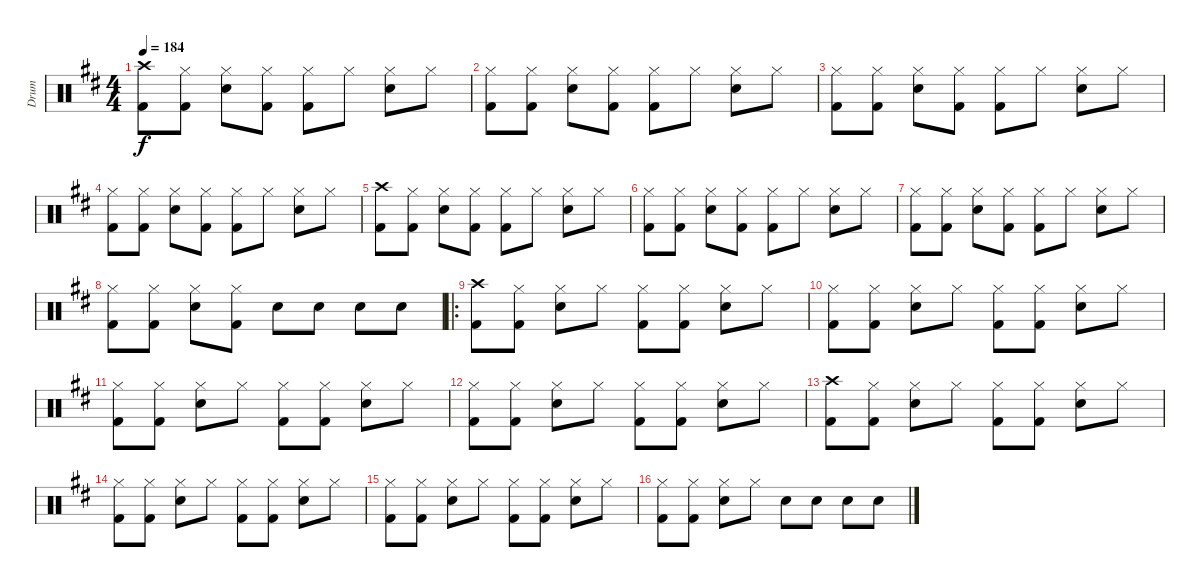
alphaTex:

\track ("Drum" "Drum") {instrument percussion}
\staff {score}
\articulation defaults
\ts (4 4)
\tempo 184
\clef neutral
\ks d
("Crash high (hit)" "Kick (hit) 2").8{dy f} ("Hi-Hat (closed)" "Kick (hit) 2").8 ("Hi-Hat (closed)" "Electric Snare (hit)").8 ("Hi-Hat (closed)" "Kick (hit) 2").8 ("Hi-Hat (closed)" "Kick (hit) 2").8 "Hi-Hat (closed)".8 ("Hi-Hat (closed)" "Electric Snare (hit)").8 "Hi-Hat (closed)".8 |
("Hi-Hat (closed)" "Kick (hit) 2").8 ("Hi-Hat (closed)" "Kick (hit) 2").8 ("Hi-Hat (closed)" "Electric Snare (hit)").8 ("Hi-Hat (closed)" "Kick (hit) 2").8 ("Hi-Hat (closed)" "Kick (hit) 2").8 "Hi-Hat (closed)".8 ("Hi-Hat (closed)" "Electric Snare (hit)").8 "Hi-Hat (closed)".8 |
("Hi-Hat (closed)" "Kick (hit) 2").8 ("Hi-Hat (closed)" "Kick (hit) 2").8 ("Hi-Hat (closed)" "Electric Snare (hit)").8 ("Hi-Hat (closed)" "Kick (hit) 2").8 ("Hi-Hat (closed)" "Kick (hit) 2").8 "Hi-Hat (closed)".8 ("Hi-Hat (closed)" "Electric Snare (hit)").8 "Hi-Hat (closed)".8 |
("Hi-Hat (closed)" "Kick (hit) 2").8 ("Hi-Hat (closed)" "Kick (hit) 2").8 ("Hi-Hat (closed)" "Electric Snare (hit)").8 ("Hi-Hat (closed)" "Kick (hit) 2").8 ("Hi-Hat (closed)" "Kick (hit) 2").8 "Hi-Hat (closed)".8 ("Hi-Hat (closed)" "Electric Snare (hit)").8 "Hi-Hat (closed)".8 |
("Crash high (hit)" "Kick (hit) 2").8 ("Hi-Hat (closed)" "Kick (hit) 2").8 ("Hi-Hat (closed)" "Electric Snare (hit)").8 ("Hi-Hat (closed)" "Kick (hit) 2").8 ("Hi-Hat (closed)" "Kick (hit) 2").8 "Hi-Hat (closed)".8 ("Hi-Hat (closed)" "Electric Snare (hit)").8 "Hi-Hat (closed)".8 |
("Hi-Hat (closed)" "Kick (hit) 2").8 ("Hi-Hat (closed)" "Kick (hit) 2").8 ("Hi-Hat (closed)" "Electric Snare (hit)").8 ("Hi-Hat (closed)" "Kick (hit) 2").8 ("Hi-Hat (closed)" "Kick (hit) 2").8 "Hi-Hat (closed)".8 ("Hi-Hat (closed)" "Electric Snare (hit)").8 "Hi-Hat (closed)".8 |
("Hi-Hat (closed)" "Kick (hit) 2").8 ("Hi-Hat (closed)" "Kick (hit) 2").8 ("Hi-Hat (closed)" "Electric Snare (hit)").8 ("Hi-Hat (closed)" "Kick (hit) 2").8 ("Hi-Hat (closed)" "Kick (hit) 2").8 "Hi-Hat (closed)".8 ("Hi-Hat (closed)" "Electric Snare (hit)").8 "Hi-Hat (closed)".8 |
("Hi-Hat (closed)" "Kick (hit) 2").8 ("Hi-Hat (closed)" "Kick (hit) 2").8 ("Hi-Hat (closed)" "Electric Snare (hit)").8 ("Hi-Hat (closed)" "Kick (hit) 2").8 "Electric Snare (hit)".8 "Electric Snare (hit)".8 "Electric Snare (hit)".8 "Electric Snare (hit)".8 |
\ro
("Crash high (hit)" "Kick (hit) 2").8 ("Hi-Hat (closed)" "Kick (hit) 2").8 ("Hi-Hat (closed)" "Electric Snare (hit)").8 "Hi-Hat (closed)".8 ("Hi-Hat (closed)" "Kick (hit) 2").8 ("Hi-Hat (closed)" "Kick (hit) 2").8 ("Hi-Hat (closed)" "Electric Snare (hit)").8 "Hi-Hat (closed)".8 |
("Hi-Hat (closed)" "Kick (hit) 2").8 ("Hi-Hat (closed)" "Kick (hit) 2").8 ("Hi-Hat (closed)" "Electric Snare (hit)").8 "Hi-Hat (closed)".8 ("Hi-Hat (closed)" "Kick (hit) 2").8 ("Hi-Hat (closed)" "Kick (hit) 2").8 ("Hi-Hat (closed)" "Electric Snare (hit)").8 "Hi-Hat (closed)".8 |
("Hi-Hat (closed)" "Kick (hit) 2").8 ("Hi-Hat (closed)" "Kick (hit) 2").8 ("Hi-Hat (closed)" "Electric Snare (hit)").8 "Hi-Hat (closed)".8 ("Hi-Hat (closed)" "Kick (hit) 2").8 ("Hi-Hat (closed)" "Kick (hit) 2").8 ("Hi-Hat (closed)" "Electric Snare (hit)").8 "Hi-Hat (closed)".8 |
("Hi-Hat (closed)" "Kick (hit) 2").8 ("Hi-Hat (closed)" "Kick (hit) 2").8 ("Hi-Hat (closed)" "Electric Snare (hit)").8 "Hi-Hat (closed)".8 ("Hi-Hat (closed)" "Kick (hit) 2").8 ("Hi-Hat (closed)" "Kick (hit) 2").8 ("Hi-Hat (closed)" "Electric Snare (hit)").8 "Hi-Hat (closed)".8 |
("Crash high (hit)" "Kick (hit) 2").8 ("Hi-Hat (closed)" "Kick (hit) 2").8 ("Hi-Hat (closed)" "Electric Snare (hit)").8 "Hi-Hat (closed)".8 ("Hi-Hat (closed)" "Kick (hit) 2").8 ("Hi-Hat (closed)" "Kick (hit) 2").8 ("Hi-Hat (closed)" "Electric Snare (hit)").8 "Hi-Hat (closed)".8 |
("Hi-Hat (closed)" "Kick (hit) 2").8 ("Hi-Hat (closed)" "Kick (hit) 2").8 ("Hi-Hat (closed)" "Electric Snare (hit)").8 "Hi-Hat (closed)".8 ("Hi-Hat (closed)" "Kick (hit) 2").8 ("Hi-Hat (closed)" "Kick (hit) 2").8 ("Hi-Hat (closed)" "Electric Snare (hit)").8 "Hi-Hat (closed)".8 |
("Hi-Hat (closed)" "Kick (hit) 2").8 ("Hi-Hat (closed)" "Kick (hit) 2").8 ("Hi-Hat (closed)" "Electric Snare (hit)").8 "Hi-Hat (closed)".8 ("Hi-Hat (closed)" "Kick (hit) 2").8 ("Hi-Hat (closed)" "Kick (hit) 2").8 ("Hi-Hat (closed)" "Electric Snare (hit)").8 "Hi-Hat (closed)".8 |
("Hi-Hat (closed)" "Kick (hit) 2").8 ("Hi-Hat (closed)" "Kick (hit) 2").8 ("Hi-Hat (closed)" "Electric Snare (hit)").8 "Hi-Hat (closed)".8 "Electric Snare (hit)".8 "Electric Snare (hit)".8 "Electric Snare (hit)".8 "Electric Snare (hit)".8
